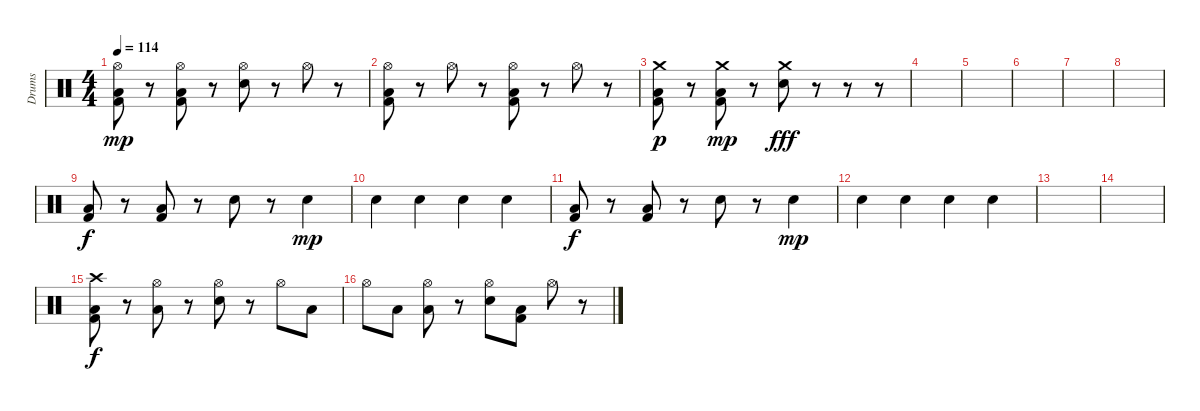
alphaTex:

\track ("Drums" "Drums") {instrument percussion}
\staff {score}
\articulation defaults
\ts (4 4)
\tempo 114
\clef neutral
\ks c
("Hi-Hat (open)" "Kick (hit) 2" "Low Floor Tom (hit)").8{dy mp} r.8 ("Hi-Hat (open)" "Kick (hit) 2" "Low Floor Tom (hit)").8 r.8 ("Hi-Hat (open)" "Snare (hit) 2").8 r.8 "Hi-Hat (open)".8 r.8 |
("Hi-Hat (open)" "Kick (hit) 2" "Low Floor Tom (hit)").8 r.8 "Hi-Hat (open)".8 r.8 ("Hi-Hat (open)" "Kick (hit) 2" "Low Floor Tom (hit)").8 r.8 "Hi-Hat (open)".8 r.8 |
("Crash medium (hit)" "Kick (hit) 2" "Low Floor Tom (hit)").8{dy p} r.8 ("Crash medium (hit)" "Kick (hit) 2" "Low Floor Tom (hit)").8{dy mp} r.8 ("Crash medium (hit)" "Snare (hit) 2").8{dy fff} r.8 r.8 r.8 |
|
|
|
|
|
("Kick (hit) 2" "Low Floor Tom (hit)").8{dy f volume 16} r.8 ("Kick (hit) 2" "Low Floor Tom (hit)").8 r.8 "Snare (hit) 2".8{volume 1} r.8 "Snare (hit) 2".4{dy mp} |
"Snare (hit) 2".4 "Snare (hit) 2".4 "Snare (hit) 2".4 "Snare (hit) 2".4 |
("Kick (hit) 2" "Low Floor Tom (hit)").8{dy f volume 16} r.8 ("Kick (hit) 2" "Low Floor Tom (hit)").8 r.8 "Snare (hit) 2".8{volume 1} r.8 "Snare (hit) 2".4{dy mp} |
"Snare (hit) 2".4 "Snare (hit) 2".4 "Snare (hit) 2".4 "Snare (hit) 2".4 |
|
|
("Crash high (hit)" "Kick (hit) 2" "Low Floor Tom (hit)").8{dy f volume 16} r.8 ("Hi-Hat (open)" "Low Floor Tom (hit)").8 r.8 ("Hi-Hat (open)" "Snare (hit) 2").8 r.8 "Hi-Hat (open)".8 "Low Floor Tom (hit)".8 |
"Hi-Hat (open)".8 "Low Floor Tom (hit)".8 ("Hi-Hat (open)" "Low Floor Tom (hit)").8 r.8 ("Hi-Hat (open)" "Snare (hit) 2").8 ("Kick (hit) 2" "Low Floor Tom (hit)").8 "Hi-Hat (open)".8 r.8
